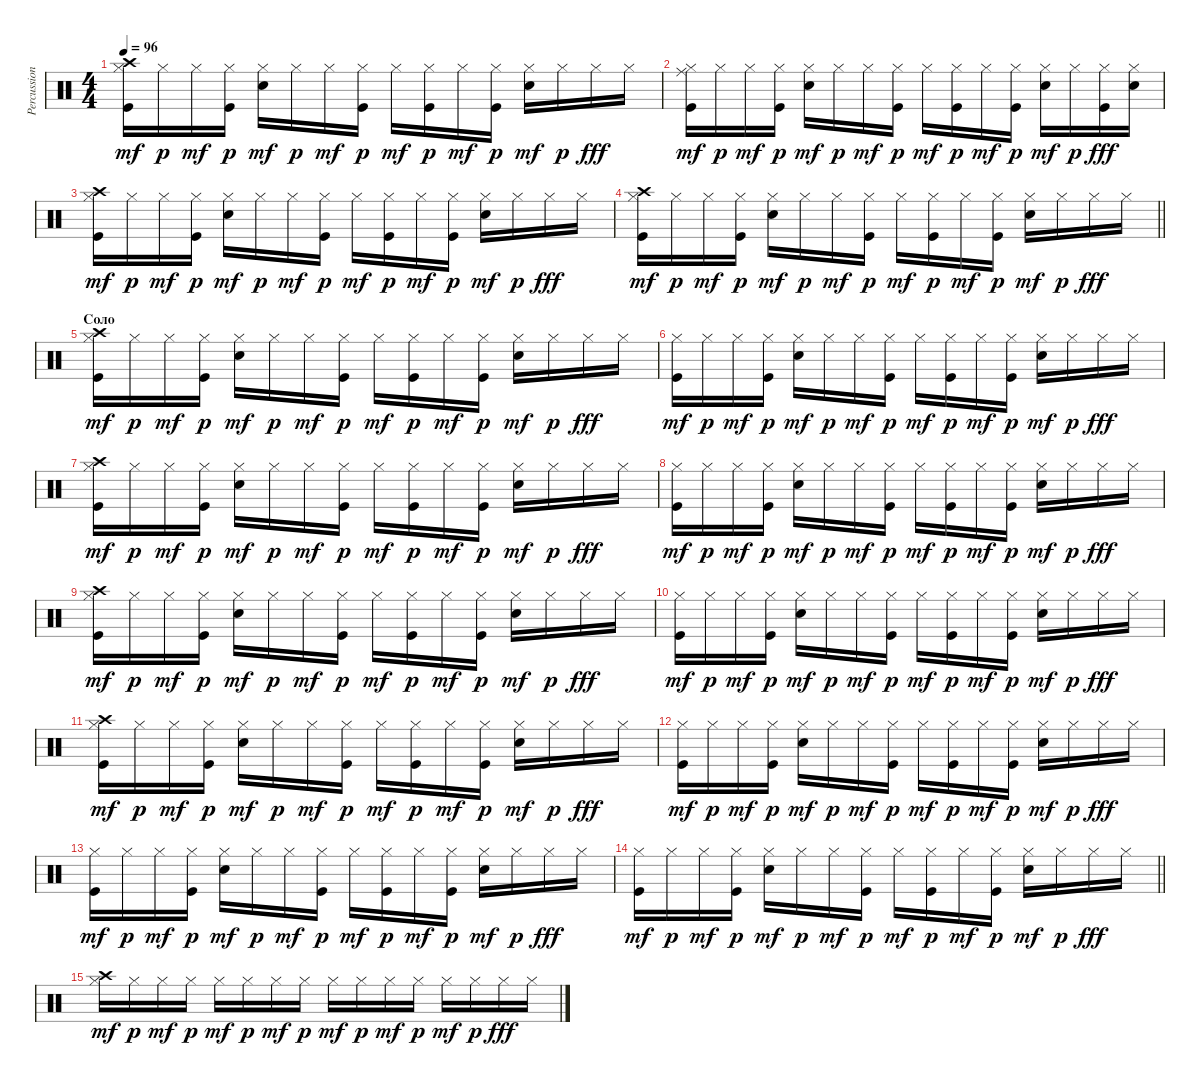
\track ("Percussion" "Percussion") {instrument percussion}
\staff {score}
\articulation defaults
\ts (4 4)
\tempo 96
\clef neutral
\ks c
("Hi-Hat (closed)" "Crash high (hit)" "Kick (hit)").16{dy mf} "Hi-Hat (closed)".16{dy p} "Hi-Hat (closed)".16{dy mf} ("Hi-Hat (closed)" "Kick (hit)").16{dy p} ("Hi-Hat (closed)" "Snare (hit) 2").16{dy mf} "Hi-Hat (closed)".16{dy p} "Hi-Hat (closed)".16{dy mf} ("Hi-Hat (closed)" "Kick (hit)").16{dy p} "Hi-Hat (closed)".16{dy mf} ("Hi-Hat (closed)" "Kick (hit)").16{dy p} "Hi-Hat (closed)".16{dy mf} ("Hi-Hat (closed)" "Kick (hit)").16{dy p} ("Hi-Hat (closed)" "Snare (hit) 2").16{dy mf} "Hi-Hat (closed)".16{dy p} "Hi-Hat (closed)".16{dy fff} "Hi-Hat (closed)".16 |
("Hi-Hat (closed)" "Ride (middle)" "Kick (hit)").16{dy mf} "Hi-Hat (closed)".16{dy p} "Hi-Hat (closed)".16{dy mf} ("Hi-Hat (closed)" "Kick (hit)").16{dy p} ("Hi-Hat (closed)" "Snare (hit) 2").16{dy mf} "Hi-Hat (closed)".16{dy p} "Hi-Hat (closed)".16{dy mf} ("Hi-Hat (closed)" "Kick (hit)").16{dy p} "Hi-Hat (closed)".16{dy mf} ("Hi-Hat (closed)" "Kick (hit)").16{dy p} "Hi-Hat (closed)".16{dy mf} ("Hi-Hat (closed)" "Kick (hit)").16{dy p} ("Hi-Hat (closed)" "Snare (hit) 2").16{dy mf} "Hi-Hat (closed)".16{dy p} ("Hi-Hat (closed)" "Kick (hit)").16{dy fff} ("Hi-Hat (closed)" "Snare (hit) 2").16 |
("Hi-Hat (closed)" "Kick (hit)" "Crash high (hit)").16{dy mf} "Hi-Hat (closed)".16{dy p} "Hi-Hat (closed)".16{dy mf} ("Hi-Hat (closed)" "Kick (hit)").16{dy p} ("Hi-Hat (closed)" "Snare (hit) 2").16{dy mf} "Hi-Hat (closed)".16{dy p} "Hi-Hat (closed)".16{dy mf} ("Hi-Hat (closed)" "Kick (hit)").16{dy p} "Hi-Hat (closed)".16{dy mf} ("Hi-Hat (closed)" "Kick (hit)").16{dy p} "Hi-Hat (closed)".16{dy mf} ("Hi-Hat (closed)" "Kick (hit)").16{dy p} ("Hi-Hat (closed)" "Snare (hit) 2").16{dy mf} "Hi-Hat (closed)".16{dy p} "Hi-Hat (closed)".16{dy fff} "Hi-Hat (closed)".16 |
\barLineRight lightlight
("Hi-Hat (closed)" "Crash high (hit)" "Kick (hit)").16{dy mf} "Hi-Hat (closed)".16{dy p} "Hi-Hat (closed)".16{dy mf} ("Hi-Hat (closed)" "Kick (hit)").16{dy p} ("Hi-Hat (closed)" "Snare (hit) 2").16{dy mf} "Hi-Hat (closed)".16{dy p} "Hi-Hat (closed)".16{dy mf} ("Hi-Hat (closed)" "Kick (hit)").16{dy p} "Hi-Hat (closed)".16{dy mf} ("Hi-Hat (closed)" "Kick (hit)").16{dy p} "Hi-Hat (closed)".16{dy mf} ("Hi-Hat (closed)" "Kick (hit)").16{dy p} ("Hi-Hat (closed)" "Snare (hit) 2").16{dy mf} "Hi-Hat (closed)".16{dy p} "Hi-Hat (closed)".16{dy fff} "Hi-Hat (closed)".16 |
\section ("" "Соло")
("Hi-Hat (closed)" "Kick (hit)" "Crash high (hit)").16{dy mf} "Hi-Hat (closed)".16{dy p} "Hi-Hat (closed)".16{dy mf} ("Hi-Hat (closed)" "Kick (hit)").16{dy p} ("Hi-Hat (closed)" "Snare (hit) 2").16{dy mf} "Hi-Hat (closed)".16{dy p} "Hi-Hat (closed)".16{dy mf} ("Hi-Hat (closed)" "Kick (hit)").16{dy p} "Hi-Hat (closed)".16{dy mf} ("Hi-Hat (closed)" "Kick (hit)").16{dy p} "Hi-Hat (closed)".16{dy mf} ("Hi-Hat (closed)" "Kick (hit)").16{dy p} ("Hi-Hat (closed)" "Snare (hit) 2").16{dy mf} "Hi-Hat (closed)".16{dy p} "Hi-Hat (closed)".16{dy fff} "Hi-Hat (closed)".16 |
("Hi-Hat (closed)" "Kick (hit)").16{dy mf} "Hi-Hat (closed)".16{dy p} "Hi-Hat (closed)".16{dy mf} ("Hi-Hat (closed)" "Kick (hit)").16{dy p} ("Hi-Hat (closed)" "Snare (hit) 2").16{dy mf} "Hi-Hat (closed)".16{dy p} "Hi-Hat (closed)".16{dy mf} ("Hi-Hat (closed)" "Kick (hit)").16{dy p} "Hi-Hat (closed)".16{dy mf} ("Hi-Hat (closed)" "Kick (hit)").16{dy p} "Hi-Hat (closed)".16{dy mf} ("Hi-Hat (closed)" "Kick (hit)").16{dy p} ("Hi-Hat (closed)" "Snare (hit) 2").16{dy mf} "Hi-Hat (closed)".16{dy p} "Hi-Hat (closed)".16{dy fff} "Hi-Hat (closed)".16 |
("Hi-Hat (closed)" "Kick (hit)" "Crash high (hit)").16{dy mf} "Hi-Hat (closed)".16{dy p} "Hi-Hat (closed)".16{dy mf} ("Hi-Hat (closed)" "Kick (hit)").16{dy p} ("Hi-Hat (closed)" "Snare (hit) 2").16{dy mf} "Hi-Hat (closed)".16{dy p} "Hi-Hat (closed)".16{dy mf} ("Hi-Hat (closed)" "Kick (hit)").16{dy p} "Hi-Hat (closed)".16{dy mf} ("Hi-Hat (closed)" "Kick (hit)").16{dy p} "Hi-Hat (closed)".16{dy mf} ("Hi-Hat (closed)" "Kick (hit)").16{dy p} ("Hi-Hat (closed)" "Snare (hit) 2").16{dy mf} "Hi-Hat (closed)".16{dy p} "Hi-Hat (closed)".16{dy fff} "Hi-Hat (closed)".16 |
("Hi-Hat (closed)" "Kick (hit)").16{dy mf} "Hi-Hat (closed)".16{dy p} "Hi-Hat (closed)".16{dy mf} ("Hi-Hat (closed)" "Kick (hit)").16{dy p} ("Hi-Hat (closed)" "Snare (hit) 2").16{dy mf} "Hi-Hat (closed)".16{dy p} "Hi-Hat (closed)".16{dy mf} ("Hi-Hat (closed)" "Kick (hit)").16{dy p} "Hi-Hat (closed)".16{dy mf} ("Hi-Hat (closed)" "Kick (hit)").16{dy p} "Hi-Hat (closed)".16{dy mf} ("Hi-Hat (closed)" "Kick (hit)").16{dy p} ("Hi-Hat (closed)" "Snare (hit) 2").16{dy mf} "Hi-Hat (closed)".16{dy p} "Hi-Hat (closed)".16{dy fff} "Hi-Hat (closed)".16 |
("Hi-Hat (closed)" "Kick (hit)" "Crash high (hit)").16{dy mf} "Hi-Hat (closed)".16{dy p} "Hi-Hat (closed)".16{dy mf} ("Hi-Hat (closed)" "Kick (hit)").16{dy p} ("Hi-Hat (closed)" "Snare (hit) 2").16{dy mf} "Hi-Hat (closed)".16{dy p} "Hi-Hat (closed)".16{dy mf} ("Hi-Hat (closed)" "Kick (hit)").16{dy p} "Hi-Hat (closed)".16{dy mf} ("Hi-Hat (closed)" "Kick (hit)").16{dy p} "Hi-Hat (closed)".16{dy mf} ("Hi-Hat (closed)" "Kick (hit)").16{dy p} ("Hi-Hat (closed)" "Snare (hit) 2").16{dy mf} "Hi-Hat (closed)".16{dy p} "Hi-Hat (closed)".16{dy fff} "Hi-Hat (closed)".16 |
("Hi-Hat (closed)" "Kick (hit)").16{dy mf} "Hi-Hat (closed)".16{dy p} "Hi-Hat (closed)".16{dy mf} ("Hi-Hat (closed)" "Kick (hit)").16{dy p} ("Hi-Hat (closed)" "Snare (hit) 2").16{dy mf} "Hi-Hat (closed)".16{dy p} "Hi-Hat (closed)".16{dy mf} ("Hi-Hat (closed)" "Kick (hit)").16{dy p} "Hi-Hat (closed)".16{dy mf} ("Hi-Hat (closed)" "Kick (hit)").16{dy p} "Hi-Hat (closed)".16{dy mf} ("Hi-Hat (closed)" "Kick (hit)").16{dy p} ("Hi-Hat (closed)" "Snare (hit) 2").16{dy mf} "Hi-Hat (closed)".16{dy p} "Hi-Hat (closed)".16{dy fff} "Hi-Hat (closed)".16 |
("Hi-Hat (closed)" "Kick (hit)" "Crash high (hit)").16{dy mf} "Hi-Hat (closed)".16{dy p} "Hi-Hat (closed)".16{dy mf} ("Hi-Hat (closed)" "Kick (hit)").16{dy p} ("Hi-Hat (closed)" "Snare (hit) 2").16{dy mf} "Hi-Hat (closed)".16{dy p} "Hi-Hat (closed)".16{dy mf} ("Hi-Hat (closed)" "Kick (hit)").16{dy p} "Hi-Hat (closed)".16{dy mf} ("Hi-Hat (closed)" "Kick (hit)").16{dy p} "Hi-Hat (closed)".16{dy mf} ("Hi-Hat (closed)" "Kick (hit)").16{dy p} ("Hi-Hat (closed)" "Snare (hit) 2").16{dy mf} "Hi-Hat (closed)".16{dy p} "Hi-Hat (closed)".16{dy fff} "Hi-Hat (closed)".16 |
("Hi-Hat (closed)" "Kick (hit)").16{dy mf} "Hi-Hat (closed)".16{dy p} "Hi-Hat (closed)".16{dy mf} ("Hi-Hat (closed)" "Kick (hit)").16{dy p} ("Hi-Hat (closed)" "Snare (hit) 2").16{dy mf} "Hi-Hat (closed)".16{dy p} "Hi-Hat (closed)".16{dy mf} ("Hi-Hat (closed)" "Kick (hit)").16{dy p} "Hi-Hat (closed)".16{dy mf} ("Hi-Hat (closed)" "Kick (hit)").16{dy p} "Hi-Hat (closed)".16{dy mf} ("Hi-Hat (closed)" "Kick (hit)").16{dy p} ("Hi-Hat (closed)" "Snare (hit) 2").16{dy mf} "Hi-Hat (closed)".16{dy p} "Hi-Hat (closed)".16{dy fff} "Hi-Hat (closed)".16 |
("Hi-Hat (closed)" "Kick (hit)").16{dy mf} "Hi-Hat (closed)".16{dy p} "Hi-Hat (closed)".16{dy mf} ("Hi-Hat (closed)" "Kick (hit)").16{dy p} ("Hi-Hat (closed)" "Snare (hit) 2").16{dy mf} "Hi-Hat (closed)".16{dy p} "Hi-Hat (closed)".16{dy mf} ("Hi-Hat (closed)" "Kick (hit)").16{dy p} "Hi-Hat (closed)".16{dy mf} ("Hi-Hat (closed)" "Kick (hit)").16{dy p} "Hi-Hat (closed)".16{dy mf} ("Hi-Hat (closed)" "Kick (hit)").16{dy p} ("Hi-Hat (closed)" "Snare (hit) 2").16{dy mf} "Hi-Hat (closed)".16{dy p} "Hi-Hat (closed)".16{dy fff} "Hi-Hat (closed)".16 |
\barLineRight lightlight
("Hi-Hat (closed)" "Kick (hit)").16{dy mf} "Hi-Hat (closed)".16{dy p} "Hi-Hat (closed)".16{dy mf} ("Hi-Hat (closed)" "Kick (hit)").16{dy p} ("Hi-Hat (closed)" "Snare (hit) 2").16{dy mf} "Hi-Hat (closed)".16{dy p} "Hi-Hat (closed)".16{dy mf} ("Hi-Hat (closed)" "Kick (hit)").16{dy p} "Hi-Hat (closed)".16{dy mf} ("Hi-Hat (closed)" "Kick (hit)").16{dy p} "Hi-Hat (closed)".16{dy mf} ("Hi-Hat (closed)" "Kick (hit)").16{dy p} ("Hi-Hat (closed)" "Snare (hit) 2").16{dy mf} "Hi-Hat (closed)".16{dy p} "Hi-Hat (closed)".16{dy fff} "Hi-Hat (closed)".16 |
("Hi-Hat (closed)" "Crash high (hit)").16{dy mf} "Hi-Hat (closed)".16{dy p} "Hi-Hat (closed)".16{dy mf} "Hi-Hat (closed)".16{dy p} "Hi-Hat (closed)".16{dy mf} "Hi-Hat (closed)".16{dy p} "Hi-Hat (closed)".16{dy mf} "Hi-Hat (closed)".16{dy p} "Hi-Hat (closed)".16{dy mf} "Hi-Hat (closed)".16{dy p} "Hi-Hat (closed)".16{dy mf} "Hi-Hat (closed)".16{dy p} "Hi-Hat (closed)".16{dy mf} "Hi-Hat (closed)".16{dy p} "Hi-Hat (closed)".16{dy fff} "Hi-Hat (closed)".16
